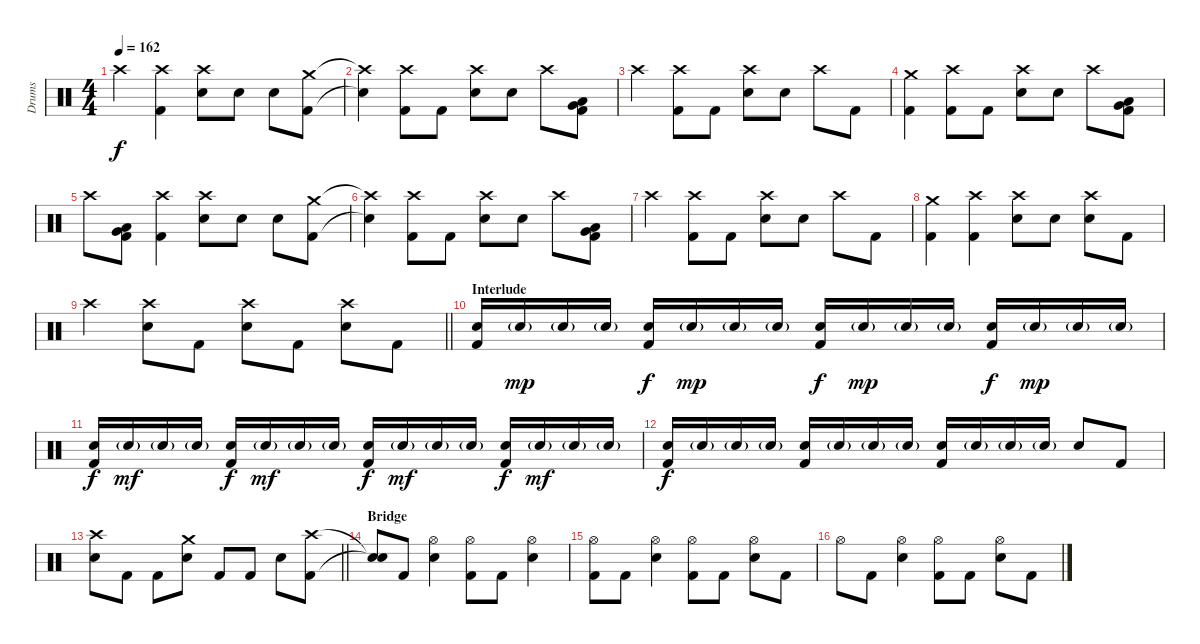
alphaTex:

\track ("Drums" "Drums") {instrument percussion}
\staff {score}
\articulation defaults
\ts (4 4)
\tempo 162
\clef neutral
\ks c "Crash high (hit)".4{dy f}
("Crash high (hit)" "Kick (hit) 2").4 ("Crash high (hit)" "Snare (hit) 2").8 "Snare (hit) 2".8 "Snare (hit) 2".8 ("Crash medium (hit)" "Kick (hit) 2").8 |
("Crash high (hit)"{t} "Snare (hit)"{t}).4 ("Crash high (hit)" "Kick (hit) 2").8 "Kick (hit) 2".8 ("Crash high (hit)" "Snare (hit) 2").8 "Snare (hit) 2".8 "Crash high (hit)".8 ("Low Tom (hit)" "Very Low Tom (hit)" "Kick (hit) 2").8 |
"Crash high (hit)".4 ("Crash high (hit)" "Kick (hit) 2").8 "Kick (hit) 2".8 ("Crash high (hit)" "Snare (hit) 2").8 "Snare (hit) 2".8 "Crash high (hit)".8 "Kick (hit) 2".8 |
("Crash medium (hit)" "Kick (hit) 2").4 ("Crash high (hit)" "Kick (hit) 2").8 "Kick (hit) 2".8 ("Crash high (hit)" "Snare (hit) 2").8 "Snare (hit) 2".8 "Crash high (hit)".8 ("Low Tom (hit)" "Very Low Tom (hit)" "Kick (hit) 2").8 |
"Crash high (hit)".8 ("Low Tom (hit)" "Very Low Tom (hit)" "Kick (hit) 2").8 ("Crash high (hit)" "Kick (hit) 2").4 ("Crash high (hit)" "Snare (hit) 2").8 "Snare (hit) 2".8 "Snare (hit) 2".8 ("Crash medium (hit)" "Kick (hit) 2").8 |
("Crash high (hit)"{t} "Snare (hit)"{t}).4 ("Crash high (hit)" "Kick (hit) 2").8 "Kick (hit) 2".8 ("Crash high (hit)" "Snare (hit) 2").8 "Snare (hit) 2".8 "Crash high (hit)".8 ("Low Tom (hit)" "Very Low Tom (hit)" "Kick (hit) 2").8 |
"Crash high (hit)".4 ("Crash high (hit)" "Kick (hit) 2").8 "Kick (hit) 2".8 ("Crash high (hit)" "Snare (hit) 2").8 "Snare (hit) 2".8 "Crash high (hit)".8 "Kick (hit) 2".8 |
("Crash medium (hit)" "Kick (hit) 2").4 ("Crash high (hit)" "Kick (hit) 2").4 ("Crash high (hit)" "Snare (hit) 2").8 "Snare (hit) 2".8 ("Crash high (hit)" "Snare (hit) 2").8 "Kick (hit) 2".8 |
\barLineRight lightlight "Crash high (hit)".4
("Crash high (hit)" "Snare (hit) 2").8 "Kick (hit) 2".8 ("Crash high (hit)" "Snare (hit) 2").8 "Kick (hit) 2".8 ("Crash high (hit)" "Snare (hit) 2").8 "Kick (hit) 2".8 |
\section ("" "Interlude")
("Snare (hit) 2" "Kick (hit) 2").16 "Snare (hit) 2"{g}.16{dy mp} "Snare (hit) 2"{g}.16 "Snare (hit) 2"{g}.16 ("Snare (hit) 2" "Kick (hit) 2").16{dy f} "Snare (hit) 2"{g}.16{dy mp} "Snare (hit) 2"{g}.16 "Snare (hit) 2"{g}.16 ("Snare (hit) 2" "Kick (hit) 2").16{dy f} "Snare (hit) 2"{g}.16{dy mp} "Snare (hit) 2"{g}.16 "Snare (hit) 2"{g}.16 ("Snare (hit) 2" "Kick (hit) 2").16{dy f} "Snare (hit) 2"{g}.16{dy mp} "Snare (hit) 2"{g}.16 "Snare (hit) 2"{g}.16 |
("Snare (hit) 2" "Kick (hit) 2").16{dy f} "Snare (hit) 2"{g}.16{dy mf} "Snare (hit) 2"{g}.16 "Snare (hit) 2"{g}.16 ("Snare (hit) 2" "Kick (hit) 2").16{dy f} "Snare (hit) 2"{g}.16{dy mf} "Snare (hit) 2"{g}.16 "Snare (hit) 2"{g}.16 ("Snare (hit) 2" "Kick (hit) 2").16{dy f} "Snare (hit) 2"{g}.16{dy mf} "Snare (hit) 2"{g}.16 "Snare (hit) 2"{g}.16 ("Snare (hit) 2" "Kick (hit) 2").16{dy f} "Snare (hit) 2"{g}.16{dy mf} "Snare (hit) 2"{g}.16 "Snare (hit) 2"{g}.16 |
("Snare (hit) 2" "Kick (hit) 2").16{dy f} "Snare (hit) 2"{g}.16 "Snare (hit) 2"{g}.16 "Snare (hit) 2"{g}.16 ("Snare (hit) 2" "Kick (hit) 2").16 "Snare (hit) 2"{g}.16 "Snare (hit) 2"{g}.16 "Snare (hit) 2"{g}.16 ("Snare (hit) 2" "Kick (hit) 2").16 "Snare (hit) 2"{g}.16 "Snare (hit) 2"{g}.16 "Snare (hit) 2"{g}.16 "Snare (hit) 2".8 "Kick (hit) 2".8 |
\barLineRight lightlight
("Crash high (hit)" "Snare (hit) 2").8 "Kick (hit) 2".8 "Kick (hit) 2".8 ("Crash medium (hit)" "Snare (hit) 2").8 "Kick (hit) 2".8 "Kick (hit) 2".8 "Snare (hit) 2".8 ("Crash high (hit)" "Kick (hit) 2").8 |
\section ("" "Bridge")
("Snare (hit)"{t} "Snare (hit)"{t}).8 "Kick (hit) 2".8 ("Snare (hit) 2" "Hi-Hat (open)").4 ("Hi-Hat (open)" "Kick (hit) 2").8 "Kick (hit) 2".8 ("Snare (hit) 2" "Hi-Hat (open)").4 |
("Hi-Hat (open)" "Kick (hit) 2").8 "Kick (hit) 2".8 ("Snare (hit) 2" "Hi-Hat (open)").4 ("Hi-Hat (open)" "Kick (hit) 2").8 "Kick (hit) 2".8 ("Snare (hit) 2" "Hi-Hat (open)").8 "Kick (hit) 2".8 |
"Hi-Hat (open)".8 "Kick (hit) 2".8 ("Snare (hit) 2" "Hi-Hat (open)").4 ("Hi-Hat (open)" "Kick (hit) 2").8 "Kick (hit) 2".8 ("Snare (hit) 2" "Hi-Hat (open)").8 "Kick (hit) 2".8
